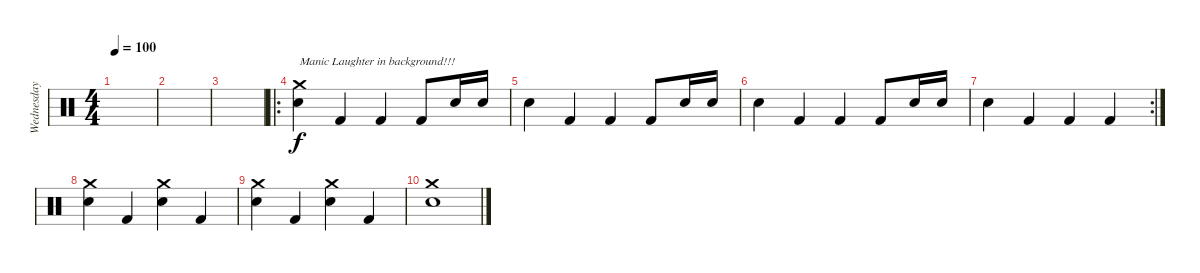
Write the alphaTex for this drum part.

\track ("Wednesday 13 IV" "Wednesday ") {instrument percussion}
\staff {score}
\articulation defaults
\ts (4 4)
\tempo 100
\clef neutral
\ks c
|
|
|
\ro
("Crash medium (hit)" "Electric Snare (hit)").4{txt "Manic Laughter in background!!!"} "Kick (hit) 2".4 "Kick (hit) 2".4 "Kick (hit) 2".8 "Electric Snare (hit)".16 "Electric Snare (hit)".16 |
"Electric Snare (hit)".4 "Kick (hit) 2".4 "Kick (hit) 2".4 "Kick (hit) 2".8 "Electric Snare (hit)".16 "Electric Snare (hit)".16 |
"Electric Snare (hit)".4 "Kick (hit) 2".4 "Kick (hit) 2".4 "Kick (hit) 2".8 "Electric Snare (hit)".16 "Electric Snare (hit)".16 |
\rc 2 "Electric Snare (hit)".4 "Kick (hit) 2".4 "Kick (hit) 2".4 "Kick (hit) 2".4
|
("Crash medium (hit)" "Electric Snare (hit)").4 "Kick (hit) 2".4 ("Crash medium (hit)" "Electric Snare (hit)").4 "Kick (hit) 2".4 |
("Crash medium (hit)" "Electric Snare (hit)").4 "Kick (hit) 2".4 ("Crash medium (hit)" "Electric Snare (hit)").4 "Kick (hit) 2".4 |
("Crash medium (hit)" "Electric Snare (hit)").1
